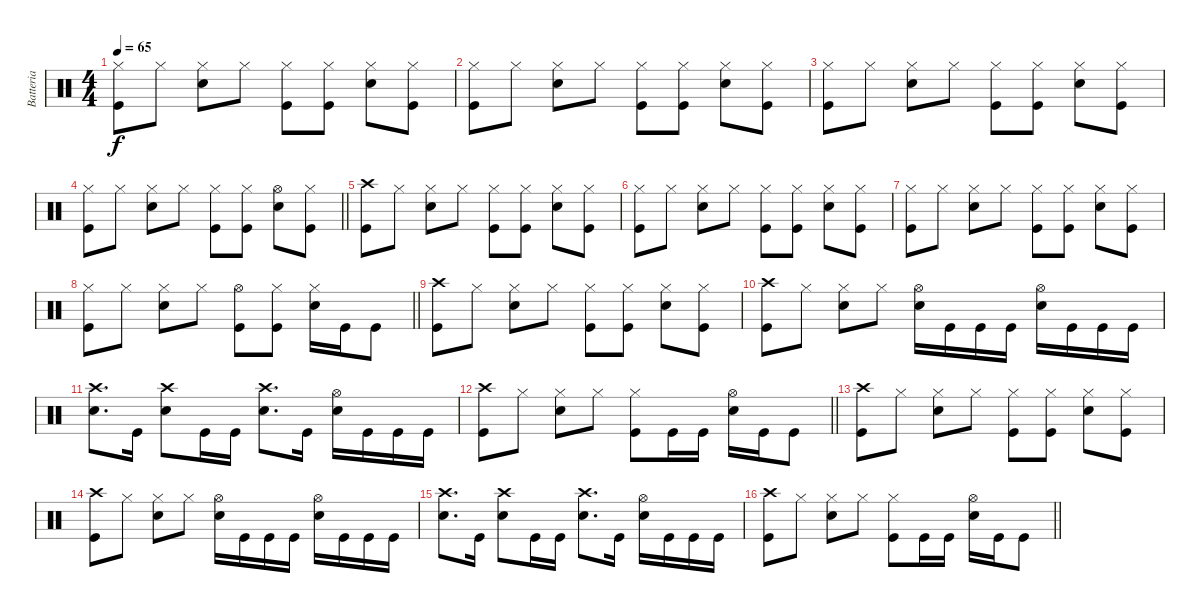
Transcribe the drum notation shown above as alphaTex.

\track ("Batteria" "Batteria") {instrument percussion}
\staff {score}
\articulation defaults
\ts (4 4)
\tempo 65
\clef neutral
\ks c
("Kick (hit)" "Hi-Hat (closed)").8{dy f} "Hi-Hat (closed)".8 ("Snare (hit) 2" "Hi-Hat (closed)").8 "Hi-Hat (closed)".8 ("Kick (hit)" "Hi-Hat (closed)").8 ("Kick (hit)" "Hi-Hat (closed)").8 ("Snare (hit) 2" "Hi-Hat (closed)").8 ("Kick (hit)" "Hi-Hat (closed)").8 |
("Kick (hit)" "Hi-Hat (closed)").8 "Hi-Hat (closed)".8 ("Snare (hit) 2" "Hi-Hat (closed)").8 "Hi-Hat (closed)".8 ("Kick (hit)" "Hi-Hat (closed)").8 ("Kick (hit)" "Hi-Hat (closed)").8 ("Snare (hit) 2" "Hi-Hat (closed)").8 ("Kick (hit)" "Hi-Hat (closed)").8 |
("Kick (hit)" "Hi-Hat (closed)").8 "Hi-Hat (closed)".8 ("Snare (hit) 2" "Hi-Hat (closed)").8 "Hi-Hat (closed)".8 ("Kick (hit)" "Hi-Hat (closed)").8 ("Kick (hit)" "Hi-Hat (closed)").8 ("Snare (hit) 2" "Hi-Hat (closed)").8 ("Kick (hit)" "Hi-Hat (closed)").8 |
\barLineRight lightlight
("Kick (hit)" "Hi-Hat (closed)").8 "Hi-Hat (closed)".8 ("Snare (hit) 2" "Hi-Hat (closed)").8 "Hi-Hat (closed)".8 ("Kick (hit)" "Hi-Hat (closed)").8 ("Kick (hit)" "Hi-Hat (closed)").8 ("Snare (hit) 2" "Hi-Hat (open)").8 ("Kick (hit)" "Hi-Hat (closed)").8 |
("Kick (hit)" "Crash high (hit)").8 "Hi-Hat (closed)".8 ("Snare (hit) 2" "Hi-Hat (closed)").8 "Hi-Hat (closed)".8 ("Kick (hit)" "Hi-Hat (closed)").8 ("Kick (hit)" "Hi-Hat (closed)").8 ("Snare (hit) 2" "Hi-Hat (closed)").8 ("Kick (hit)" "Hi-Hat (closed)").8 |
("Kick (hit)" "Hi-Hat (closed)").8 "Hi-Hat (closed)".8 ("Snare (hit) 2" "Hi-Hat (closed)").8 "Hi-Hat (closed)".8 ("Kick (hit)" "Hi-Hat (closed)").8 ("Kick (hit)" "Hi-Hat (closed)").8 ("Snare (hit) 2" "Hi-Hat (closed)").8 ("Kick (hit)" "Hi-Hat (closed)").8 |
("Kick (hit)" "Hi-Hat (closed)").8 "Hi-Hat (closed)".8 ("Snare (hit) 2" "Hi-Hat (closed)").8 "Hi-Hat (closed)".8 ("Kick (hit)" "Hi-Hat (closed)").8 ("Kick (hit)" "Hi-Hat (closed)").8 ("Snare (hit) 2" "Hi-Hat (closed)").8 ("Kick (hit)" "Hi-Hat (closed)").8 |
\barLineRight lightlight
("Kick (hit)" "Hi-Hat (closed)").8 "Hi-Hat (closed)".8 ("Snare (hit) 2" "Hi-Hat (closed)").8 "Hi-Hat (closed)".8 ("Kick (hit)" "Hi-Hat (open)").8 ("Kick (hit)" "Hi-Hat (closed)").8 ("Snare (hit) 2" "Hi-Hat (closed)").16 "Kick (hit)".16 "Kick (hit)".8 |
("Kick (hit)" "Crash high (hit)").8 "Hi-Hat (closed)".8 ("Snare (hit) 2" "Hi-Hat (closed)").8 "Hi-Hat (closed)".8 ("Kick (hit)" "Hi-Hat (closed)").8 ("Kick (hit)" "Hi-Hat (closed)").8 ("Snare (hit) 2" "Hi-Hat (closed)").8 ("Kick (hit)" "Hi-Hat (closed)").8 |
("Kick (hit)" "Crash high (hit)").8 "Hi-Hat (closed)".8 ("Snare (hit) 2" "Hi-Hat (closed)").8 "Hi-Hat (closed)".8 ("Snare (hit) 2" "Hi-Hat (open)").16 "Kick (hit)".16 "Kick (hit)".16 "Kick (hit)".16 ("Snare (hit) 2" "Hi-Hat (open)").16 "Kick (hit)".16 "Kick (hit)".16 "Kick (hit)".16 |
("Snare (hit) 2" "Crash high (hit)").8{d} "Kick (hit)".16 ("Snare (hit) 2" "Crash high (hit)").8 "Kick (hit)".16 "Kick (hit)".16 ("Snare (hit) 2" "Crash high (hit)").8{d} "Kick (hit)".16 ("Snare (hit) 2" "Hi-Hat (open)").16 "Kick (hit)".16 "Kick (hit)".16 "Kick (hit)".16 |
\barLineRight lightlight
("Kick (hit)" "Crash high (hit)").8 "Hi-Hat (closed)".8 ("Snare (hit) 2" "Hi-Hat (closed)").8 "Hi-Hat (closed)".8 ("Kick (hit)" "Hi-Hat (closed)").8 "Kick (hit)".16 "Kick (hit)".16 ("Snare (hit) 2" "Hi-Hat (open)").16 "Kick (hit)".16 "Kick (hit)".8 |
("Kick (hit)" "Crash high (hit)").8 "Hi-Hat (closed)".8 ("Snare (hit) 2" "Hi-Hat (closed)").8 "Hi-Hat (closed)".8 ("Kick (hit)" "Hi-Hat (closed)").8 ("Kick (hit)" "Hi-Hat (closed)").8 ("Snare (hit) 2" "Hi-Hat (closed)").8 ("Kick (hit)" "Hi-Hat (closed)").8 |
("Kick (hit)" "Crash high (hit)").8 "Hi-Hat (closed)".8 ("Snare (hit) 2" "Hi-Hat (closed)").8 "Hi-Hat (closed)".8 ("Snare (hit) 2" "Hi-Hat (open)").16 "Kick (hit)".16 "Kick (hit)".16 "Kick (hit)".16 ("Snare (hit) 2" "Hi-Hat (open)").16 "Kick (hit)".16 "Kick (hit)".16 "Kick (hit)".16 |
("Snare (hit) 2" "Crash high (hit)").8{d} "Kick (hit)".16 ("Snare (hit) 2" "Crash high (hit)").8 "Kick (hit)".16 "Kick (hit)".16 ("Snare (hit) 2" "Crash high (hit)").8{d} "Kick (hit)".16 ("Snare (hit) 2" "Hi-Hat (open)").16 "Kick (hit)".16 "Kick (hit)".16 "Kick (hit)".16 |
\barLineRight lightlight
("Kick (hit)" "Crash high (hit)").8 "Hi-Hat (closed)".8 ("Snare (hit) 2" "Hi-Hat (closed)").8 "Hi-Hat (closed)".8 ("Kick (hit)" "Hi-Hat (closed)").8 "Kick (hit)".16 "Kick (hit)".16 ("Snare (hit) 2" "Hi-Hat (open)").16 "Kick (hit)".16 "Kick (hit)".8
